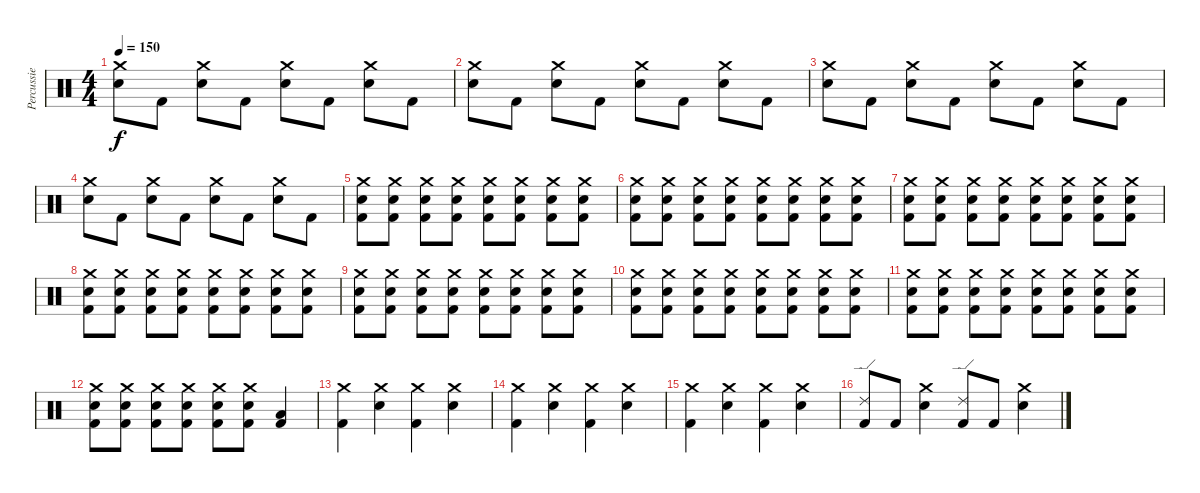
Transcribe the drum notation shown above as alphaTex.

\track ("Percussie" "Percussie") {instrument percussion}
\staff {score}
\articulation defaults
\ts (4 4)
\tempo 150
\clef neutral
\ks c
("Crash medium (hit)" "Snare (hit) 2").8{dy f} "Kick (hit) 2".8 ("Crash medium (hit)" "Snare (hit) 2").8 "Kick (hit) 2".8 ("Crash medium (hit)" "Snare (hit) 2").8 "Kick (hit) 2".8 ("Crash medium (hit)" "Snare (hit) 2").8 "Kick (hit) 2".8 |
("Crash medium (hit)" "Snare (hit) 2").8 "Kick (hit) 2".8 ("Crash medium (hit)" "Snare (hit) 2").8 "Kick (hit) 2".8 ("Crash medium (hit)" "Snare (hit) 2").8 "Kick (hit) 2".8 ("Crash medium (hit)" "Snare (hit) 2").8 "Kick (hit) 2".8 |
("Crash medium (hit)" "Snare (hit) 2").8 "Kick (hit) 2".8 ("Crash medium (hit)" "Snare (hit) 2").8 "Kick (hit) 2".8 ("Crash medium (hit)" "Snare (hit) 2").8 "Kick (hit) 2".8 ("Crash medium (hit)" "Snare (hit) 2").8 "Kick (hit) 2".8 |
("Crash medium (hit)" "Snare (hit) 2").8 "Kick (hit) 2".8 ("Crash medium (hit)" "Snare (hit) 2").8 "Kick (hit) 2".8 ("Crash medium (hit)" "Snare (hit) 2").8 "Kick (hit) 2".8 ("Crash medium (hit)" "Snare (hit) 2").8 "Kick (hit) 2".8 |
("Crash medium (hit)" "Snare (hit) 2" "Kick (hit) 2").8 ("Crash medium (hit)" "Snare (hit) 2" "Kick (hit) 2").8 ("Crash medium (hit)" "Snare (hit) 2" "Kick (hit) 2").8 ("Crash medium (hit)" "Snare (hit) 2" "Kick (hit) 2").8 ("Crash medium (hit)" "Snare (hit) 2" "Kick (hit) 2").8 ("Crash medium (hit)" "Snare (hit) 2" "Kick (hit) 2").8 ("Crash medium (hit)" "Snare (hit) 2" "Kick (hit) 2").8 ("Crash medium (hit)" "Snare (hit) 2" "Kick (hit) 2").8 |
("Crash medium (hit)" "Snare (hit) 2" "Kick (hit) 2").8 ("Crash medium (hit)" "Snare (hit) 2" "Kick (hit) 2").8 ("Crash medium (hit)" "Snare (hit) 2" "Kick (hit) 2").8 ("Crash medium (hit)" "Snare (hit) 2" "Kick (hit) 2").8 ("Crash medium (hit)" "Snare (hit) 2" "Kick (hit) 2").8 ("Crash medium (hit)" "Snare (hit) 2" "Kick (hit) 2").8 ("Crash medium (hit)" "Snare (hit) 2" "Kick (hit) 2").8 ("Crash medium (hit)" "Snare (hit) 2" "Kick (hit) 2").8 |
("Crash medium (hit)" "Snare (hit) 2" "Kick (hit) 2").8 ("Crash medium (hit)" "Snare (hit) 2" "Kick (hit) 2").8 ("Crash medium (hit)" "Snare (hit) 2" "Kick (hit) 2").8 ("Crash medium (hit)" "Snare (hit) 2" "Kick (hit) 2").8 ("Crash medium (hit)" "Snare (hit) 2" "Kick (hit) 2").8 ("Crash medium (hit)" "Snare (hit) 2" "Kick (hit) 2").8 ("Crash medium (hit)" "Snare (hit) 2" "Kick (hit) 2").8 ("Crash medium (hit)" "Snare (hit) 2" "Kick (hit) 2").8 |
("Crash medium (hit)" "Snare (hit) 2" "Kick (hit) 2").8 ("Crash medium (hit)" "Snare (hit) 2" "Kick (hit) 2").8 ("Crash medium (hit)" "Snare (hit) 2" "Kick (hit) 2").8 ("Crash medium (hit)" "Snare (hit) 2" "Kick (hit) 2").8 ("Crash medium (hit)" "Snare (hit) 2" "Kick (hit) 2").8 ("Crash medium (hit)" "Snare (hit) 2" "Kick (hit) 2").8 ("Crash medium (hit)" "Snare (hit) 2" "Kick (hit) 2").8 ("Crash medium (hit)" "Snare (hit) 2" "Kick (hit) 2").8 |
("Crash medium (hit)" "Snare (hit) 2" "Kick (hit) 2").8 ("Crash medium (hit)" "Snare (hit) 2" "Kick (hit) 2").8 ("Crash medium (hit)" "Snare (hit) 2" "Kick (hit) 2").8 ("Crash medium (hit)" "Snare (hit) 2" "Kick (hit) 2").8 ("Crash medium (hit)" "Snare (hit) 2" "Kick (hit) 2").8 ("Crash medium (hit)" "Snare (hit) 2" "Kick (hit) 2").8 ("Crash medium (hit)" "Snare (hit) 2" "Kick (hit) 2").8 ("Crash medium (hit)" "Snare (hit) 2" "Kick (hit) 2").8 |
("Crash medium (hit)" "Snare (hit) 2" "Kick (hit) 2").8 ("Crash medium (hit)" "Snare (hit) 2" "Kick (hit) 2").8 ("Crash medium (hit)" "Snare (hit) 2" "Kick (hit) 2").8 ("Crash medium (hit)" "Snare (hit) 2" "Kick (hit) 2").8 ("Crash medium (hit)" "Snare (hit) 2" "Kick (hit) 2").8 ("Crash medium (hit)" "Snare (hit) 2" "Kick (hit) 2").8 ("Crash medium (hit)" "Snare (hit) 2" "Kick (hit) 2").8 ("Crash medium (hit)" "Snare (hit) 2" "Kick (hit) 2").8 |
("Crash medium (hit)" "Snare (hit) 2" "Kick (hit) 2").8 ("Crash medium (hit)" "Snare (hit) 2" "Kick (hit) 2").8 ("Crash medium (hit)" "Snare (hit) 2" "Kick (hit) 2").8 ("Crash medium (hit)" "Snare (hit) 2" "Kick (hit) 2").8 ("Crash medium (hit)" "Snare (hit) 2" "Kick (hit) 2").8 ("Crash medium (hit)" "Snare (hit) 2" "Kick (hit) 2").8 ("Crash medium (hit)" "Snare (hit) 2" "Kick (hit) 2").8 ("Crash medium (hit)" "Snare (hit) 2" "Kick (hit) 2").8 |
("Crash medium (hit)" "Snare (hit) 2" "Kick (hit) 2").8 ("Crash medium (hit)" "Snare (hit) 2" "Kick (hit) 2").8 ("Crash medium (hit)" "Snare (hit) 2" "Kick (hit) 2").8 ("Crash medium (hit)" "Snare (hit) 2" "Kick (hit) 2").8 ("Crash medium (hit)" "Snare (hit) 2" "Kick (hit) 2").8 ("Crash medium (hit)" "Snare (hit) 2" "Kick (hit) 2").8 ("Low Tom (hit)" "Kick (hit) 2").4 |
("Crash medium (hit)" "Kick (hit) 2").4 ("Crash medium (hit)" "Snare (hit) 2").4 ("Crash medium (hit)" "Kick (hit) 2").4 ("Crash medium (hit)" "Snare (hit) 2").4 |
("Crash medium (hit)" "Kick (hit) 2").4 ("Crash medium (hit)" "Snare (hit) 2").4 ("Crash medium (hit)" "Kick (hit) 2").4 ("Crash medium (hit)" "Snare (hit) 2").4 |
("Crash medium (hit)" "Kick (hit) 2").4 ("Crash medium (hit)" "Snare (hit) 2").4 ("Crash medium (hit)" "Kick (hit) 2").4 ("Crash medium (hit)" "Snare (hit) 2").4 |
("Ride (edge) 2" "Kick (hit) 2").8 "Kick (hit) 2".8 ("Crash medium (hit)" "Snare (hit) 2").4 ("Ride (edge) 2" "Kick (hit) 2").8 "Kick (hit) 2".8 ("Crash medium (hit)" "Snare (hit) 2").4
